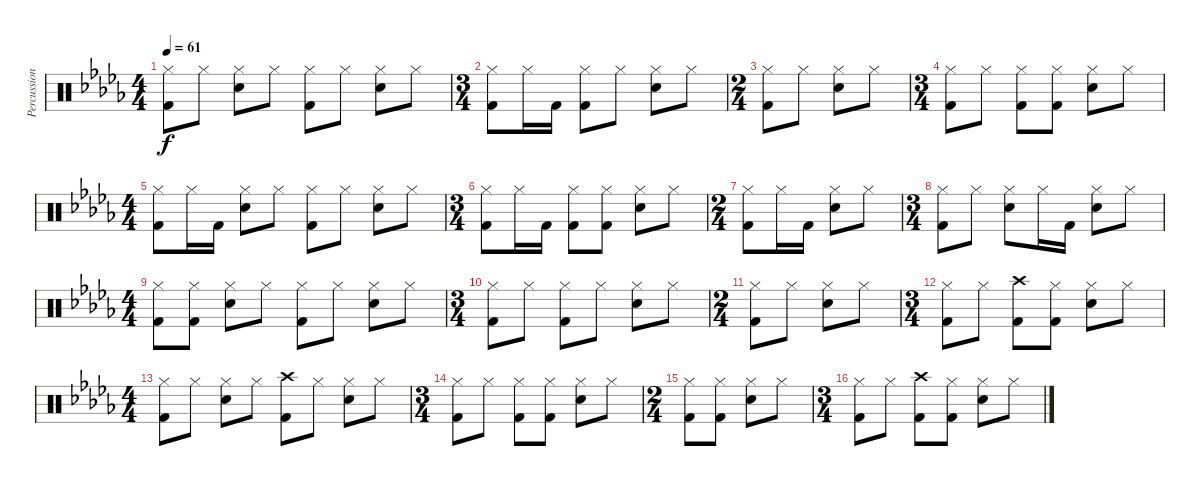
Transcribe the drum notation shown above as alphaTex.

\track ("Percussions" "Percussion") {instrument percussion}
\staff {score}
\articulation defaults
\ts (4 4)
\tempo 61
\clef neutral
\ks db
("Hi-Hat (closed)" "Kick (hit) 2").8{dy f} "Hi-Hat (closed)".8 ("Hi-Hat (closed)" "Electric Snare (hit)").8 "Hi-Hat (closed)".8 ("Hi-Hat (closed)" "Kick (hit) 2").8 "Hi-Hat (closed)".8 ("Hi-Hat (closed)" "Electric Snare (hit)").8 "Hi-Hat (closed)".8 |
\ts (3 4)
("Hi-Hat (closed)" "Kick (hit) 2").8 "Hi-Hat (closed)".16 "Kick (hit) 2".16 ("Hi-Hat (closed)" "Kick (hit) 2").8 "Hi-Hat (closed)".8 ("Hi-Hat (closed)" "Electric Snare (hit)").8 "Hi-Hat (closed)".8 |
\ts (2 4)
("Hi-Hat (closed)" "Kick (hit) 2").8 "Hi-Hat (closed)".8 ("Hi-Hat (closed)" "Electric Snare (hit)").8 "Hi-Hat (closed)".8 |
\ts (3 4)
("Hi-Hat (closed)" "Kick (hit) 2").8 "Hi-Hat (closed)".8 ("Hi-Hat (closed)" "Kick (hit) 2").8 ("Hi-Hat (closed)" "Kick (hit) 2").8 ("Hi-Hat (closed)" "Electric Snare (hit)").8 "Hi-Hat (closed)".8 |
\ts (4 4)
("Hi-Hat (closed)" "Kick (hit) 2").8 "Hi-Hat (closed)".16 "Kick (hit) 2".16 ("Hi-Hat (closed)" "Electric Snare (hit)").8 "Hi-Hat (closed)".8 ("Hi-Hat (closed)" "Kick (hit) 2").8 "Hi-Hat (closed)".8 ("Hi-Hat (closed)" "Electric Snare (hit)").8 "Hi-Hat (closed)".8 |
\ts (3 4)
("Hi-Hat (closed)" "Kick (hit) 2").8 "Hi-Hat (closed)".16 "Kick (hit) 2".16 ("Hi-Hat (closed)" "Kick (hit) 2").8 ("Hi-Hat (closed)" "Kick (hit) 2").8 ("Hi-Hat (closed)" "Electric Snare (hit)").8 "Hi-Hat (closed)".8 |
\ts (2 4)
("Hi-Hat (closed)" "Kick (hit) 2").8 "Hi-Hat (closed)".16 "Kick (hit) 2".16 ("Hi-Hat (closed)" "Electric Snare (hit)").8 "Hi-Hat (closed)".8 |
\ts (3 4)
("Hi-Hat (closed)" "Kick (hit) 2").8 "Hi-Hat (closed)".8 ("Hi-Hat (closed)" "Electric Snare (hit)").8 "Hi-Hat (closed)".16 "Kick (hit) 2".16 ("Hi-Hat (closed)" "Electric Snare (hit)").8 "Hi-Hat (closed)".8 |
\ts (4 4)
("Hi-Hat (closed)" "Kick (hit) 2").8 ("Hi-Hat (closed)" "Kick (hit) 2").8 ("Hi-Hat (closed)" "Electric Snare (hit)").8 "Hi-Hat (closed)".8 ("Hi-Hat (closed)" "Kick (hit) 2").8 "Hi-Hat (closed)".8 ("Hi-Hat (closed)" "Electric Snare (hit)").8 "Hi-Hat (closed)".8 |
\ts (3 4)
("Hi-Hat (closed)" "Kick (hit) 2").8 "Hi-Hat (closed)".8 ("Hi-Hat (closed)" "Kick (hit) 2").8 "Hi-Hat (closed)".8 ("Hi-Hat (closed)" "Electric Snare (hit)").8 "Hi-Hat (closed)".8 |
\ts (2 4)
("Hi-Hat (closed)" "Kick (hit) 2").8 "Hi-Hat (closed)".8 ("Hi-Hat (closed)" "Electric Snare (hit)").8 "Hi-Hat (closed)".8 |
\ts (3 4)
("Hi-Hat (closed)" "Kick (hit) 2").8 "Hi-Hat (closed)".8 ("Crash high (hit)" "Kick (hit) 2").8 ("Hi-Hat (closed)" "Kick (hit) 2").8 ("Hi-Hat (closed)" "Electric Snare (hit)").8 "Hi-Hat (closed)".8 |
\ts (4 4)
("Hi-Hat (closed)" "Kick (hit) 2").8 "Hi-Hat (closed)".8 ("Hi-Hat (closed)" "Electric Snare (hit)").8 "Hi-Hat (closed)".8 ("Crash high (hit)" "Kick (hit) 2").8 "Hi-Hat (closed)".8 ("Hi-Hat (closed)" "Electric Snare (hit)").8 "Hi-Hat (closed)".8 |
\ts (3 4)
("Hi-Hat (closed)" "Kick (hit) 2").8 "Hi-Hat (closed)".8 ("Hi-Hat (closed)" "Kick (hit) 2").8 ("Hi-Hat (closed)" "Kick (hit) 2").8 ("Hi-Hat (closed)" "Electric Snare (hit)").8 "Hi-Hat (closed)".8 |
\ts (2 4)
("Hi-Hat (closed)" "Kick (hit) 2").8 ("Hi-Hat (closed)" "Kick (hit) 2").8 ("Hi-Hat (closed)" "Electric Snare (hit)").8 "Hi-Hat (closed)".8 |
\ts (3 4)
("Hi-Hat (closed)" "Kick (hit) 2").8 "Hi-Hat (closed)".8 ("Crash high (hit)" "Kick (hit) 2").8 ("Hi-Hat (closed)" "Kick (hit) 2").8 ("Hi-Hat (closed)" "Electric Snare (hit)").8 "Hi-Hat (closed)".8
